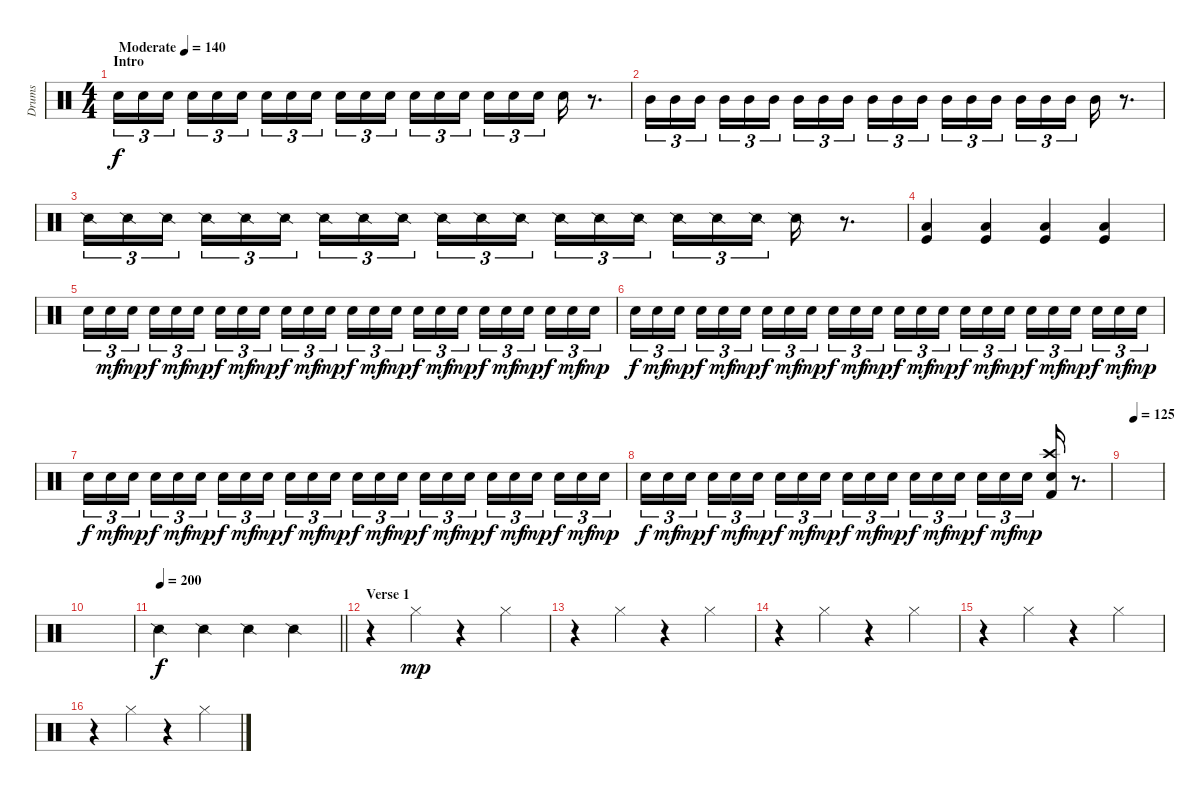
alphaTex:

\track ("Drums" "Drums") {instrument percussion}
\staff {score}
\articulation defaults
\ts (4 4)
\section ("" "Intro")
\tempo (140 "Moderate")
\clef neutral
\ks c "Snare (hit) 2".16{tu (3 2) dy f} "Snare (hit) 2".16{tu (3 2)} "Snare (hit) 2".16{tu (3 2) beam splitsecondary} "Snare (hit) 2".16{tu (3 2)} "Snare (hit) 2".16{tu (3 2)} "Snare (hit) 2".16{tu (3 2)} "Snare (hit) 2".16{tu (3 2)} "Snare (hit) 2".16{tu (3 2)} "Snare (hit) 2".16{tu (3 2) beam splitsecondary} "Snare (hit) 2".16{tu (3 2)} "Snare (hit) 2".16{tu (3 2)} "Snare (hit) 2".16{tu (3 2)} "Snare (hit) 2".16{tu (3 2)} "Snare (hit) 2".16{tu (3 2)} "Snare (hit) 2".16{tu (3 2) beam splitsecondary} "Snare (hit) 2".16{tu (3 2)} "Snare (hit) 2".16{tu (3 2)} "Snare (hit) 2".16{tu (3 2)} "Snare (hit) 2".16
r.8{d} |
"Mid Tom (hit)".16{tu (3 2)} "Mid Tom (hit)".16{tu (3 2)} "Mid Tom (hit)".16{tu (3 2) beam splitsecondary} "Mid Tom (hit)".16{tu (3 2)} "Mid Tom (hit)".16{tu (3 2)} "Mid Tom (hit)".16{tu (3 2)} "Mid Tom (hit)".16{tu (3 2)} "Mid Tom (hit)".16{tu (3 2)} "Mid Tom (hit)".16{tu (3 2) beam splitsecondary} "Mid Tom (hit)".16{tu (3 2)} "Mid Tom (hit)".16{tu (3 2)} "Mid Tom (hit)".16{tu (3 2)} "Mid Tom (hit)".16{tu (3 2)} "Mid Tom (hit)".16{tu (3 2)} "Mid Tom (hit)".16{tu (3 2) beam splitsecondary} "Mid Tom (hit)".16{tu (3 2)} "Mid Tom (hit)".16{tu (3 2)} "Mid Tom (hit)".16{tu (3 2)} "Mid Tom (hit)".16 r.8{d} |
"Snare (side stick) 2".16{tu (3 2)} "Snare (side stick) 2".16{tu (3 2)} "Snare (side stick) 2".16{tu (3 2) beam splitsecondary} "Snare (side stick) 2".16{tu (3 2)} "Snare (side stick) 2".16{tu (3 2)} "Snare (side stick) 2".16{tu (3 2)} "Snare (side stick) 2".16{tu (3 2)} "Snare (side stick) 2".16{tu (3 2)} "Snare (side stick) 2".16{tu (3 2) beam splitsecondary} "Snare (side stick) 2".16{tu (3 2)} "Snare (side stick) 2".16{tu (3 2)} "Snare (side stick) 2".16{tu (3 2)} "Snare (side stick) 2".16{tu (3 2)} "Snare (side stick) 2".16{tu (3 2)} "Snare (side stick) 2".16{tu (3 2) beam splitsecondary} "Snare (side stick) 2".16{tu (3 2)} "Snare (side stick) 2".16{tu (3 2)} "Snare (side stick) 2".16{tu (3 2)} "Snare (side stick) 2".16 r.8{d} |
("Low Tom (hit)" "Kick (hit)").4 ("Low Tom (hit)" "Kick (hit)").4 ("Low Tom (hit)" "Kick (hit)").4 ("Low Tom (hit)" "Kick (hit)").4 |
"Snare (hit) 2".16{tu (3 2)} "Snare (hit) 2".16{tu (3 2) dy mf} "Snare (hit) 2".16{tu (3 2) dy mp beam splitsecondary} "Snare (hit) 2".16{tu (3 2) dy f} "Snare (hit) 2".16{tu (3 2) dy mf} "Snare (hit) 2".16{tu (3 2) dy mp} "Snare (hit) 2".16{tu (3 2) dy f} "Snare (hit) 2".16{tu (3 2) dy mf} "Snare (hit) 2".16{tu (3 2) dy mp beam splitsecondary} "Snare (hit) 2".16{tu (3 2) dy f} "Snare (hit) 2".16{tu (3 2) dy mf} "Snare (hit) 2".16{tu (3 2) dy mp} "Snare (hit) 2".16{tu (3 2) dy f} "Snare (hit) 2".16{tu (3 2) dy mf} "Snare (hit) 2".16{tu (3 2) dy mp beam splitsecondary} "Snare (hit) 2".16{tu (3 2) dy f} "Snare (hit) 2".16{tu (3 2) dy mf} "Snare (hit) 2".16{tu (3 2) dy mp} "Snare (hit) 2".16{tu (3 2) dy f} "Snare (hit) 2".16{tu (3 2) dy mf} "Snare (hit) 2".16{tu (3 2) dy mp beam splitsecondary} "Snare (hit) 2".16{tu (3 2) dy f} "Snare (hit) 2".16{tu (3 2) dy mf} "Snare (hit) 2".16{tu (3 2) dy mp} |
"Snare (hit) 2".16{tu (3 2) dy f} "Snare (hit) 2".16{tu (3 2) dy mf} "Snare (hit) 2".16{tu (3 2) dy mp beam splitsecondary} "Snare (hit) 2".16{tu (3 2) dy f} "Snare (hit) 2".16{tu (3 2) dy mf} "Snare (hit) 2".16{tu (3 2) dy mp} "Snare (hit) 2".16{tu (3 2) dy f} "Snare (hit) 2".16{tu (3 2) dy mf} "Snare (hit) 2".16{tu (3 2) dy mp beam splitsecondary} "Snare (hit) 2".16{tu (3 2) dy f} "Snare (hit) 2".16{tu (3 2) dy mf} "Snare (hit) 2".16{tu (3 2) dy mp} "Snare (hit) 2".16{tu (3 2) dy f} "Snare (hit) 2".16{tu (3 2) dy mf} "Snare (hit) 2".16{tu (3 2) dy mp beam splitsecondary} "Snare (hit) 2".16{tu (3 2) dy f} "Snare (hit) 2".16{tu (3 2) dy mf} "Snare (hit) 2".16{tu (3 2) dy mp} "Snare (hit) 2".16{tu (3 2) dy f} "Snare (hit) 2".16{tu (3 2) dy mf} "Snare (hit) 2".16{tu (3 2) dy mp beam splitsecondary} "Snare (hit) 2".16{tu (3 2) dy f} "Snare (hit) 2".16{tu (3 2) dy mf} "Snare (hit) 2".16{tu (3 2) dy mp} |
"Snare (hit) 2".16{tu (3 2) dy f} "Snare (hit) 2".16{tu (3 2) dy mf} "Snare (hit) 2".16{tu (3 2) dy mp beam splitsecondary} "Snare (hit) 2".16{tu (3 2) dy f} "Snare (hit) 2".16{tu (3 2) dy mf} "Snare (hit) 2".16{tu (3 2) dy mp} "Snare (hit) 2".16{tu (3 2) dy f} "Snare (hit) 2".16{tu (3 2) dy mf} "Snare (hit) 2".16{tu (3 2) dy mp beam splitsecondary} "Snare (hit) 2".16{tu (3 2) dy f} "Snare (hit) 2".16{tu (3 2) dy mf} "Snare (hit) 2".16{tu (3 2) dy mp} "Snare (hit) 2".16{tu (3 2) dy f} "Snare (hit) 2".16{tu (3 2) dy mf} "Snare (hit) 2".16{tu (3 2) dy mp beam splitsecondary} "Snare (hit) 2".16{tu (3 2) dy f} "Snare (hit) 2".16{tu (3 2) dy mf} "Snare (hit) 2".16{tu (3 2) dy mp} "Snare (hit) 2".16{tu (3 2) dy f} "Snare (hit) 2".16{tu (3 2) dy mf} "Snare (hit) 2".16{tu (3 2) dy mp beam splitsecondary} "Snare (hit) 2".16{tu (3 2) dy f} "Snare (hit) 2".16{tu (3 2) dy mf} "Snare (hit) 2".16{tu (3 2) dy mp} |
"Snare (hit) 2".16{tu (3 2) dy f} "Snare (hit) 2".16{tu (3 2) dy mf} "Snare (hit) 2".16{tu (3 2) dy mp beam splitsecondary} "Snare (hit) 2".16{tu (3 2) dy f} "Snare (hit) 2".16{tu (3 2) dy mf} "Snare (hit) 2".16{tu (3 2) dy mp} "Snare (hit) 2".16{tu (3 2) dy f} "Snare (hit) 2".16{tu (3 2) dy mf} "Snare (hit) 2".16{tu (3 2) dy mp beam splitsecondary} "Snare (hit) 2".16{tu (3 2) dy f} "Snare (hit) 2".16{tu (3 2) dy mf} "Snare (hit) 2".16{tu (3 2) dy mp} "Snare (hit) 2".16{tu (3 2) dy f} "Snare (hit) 2".16{tu (3 2) dy mf} "Snare (hit) 2".16{tu (3 2) dy mp beam splitsecondary} "Snare (hit) 2".16{tu (3 2) dy f} "Snare (hit) 2".16{tu (3 2) dy mf} "Snare (hit) 2".16{tu (3 2) dy mp} ("Crash high (hit)" "Snare (hit) 2" "Kick (hit) 2").16 r.8{d} |
\tempo (125 0.25)
|
|
\tempo 200
\barLineRight lightlight "Snare (side stick) 2".4{dy f} "Snare (side stick) 2".4 "Snare (side stick) 2".4 "Snare (side stick) 2".4
|
\section ("" "Verse 1")
r.4 "Hi-Hat (closed)".4{dy mp} r.4 "Hi-Hat (closed)".4 |
r.4 "Hi-Hat (closed)".4 r.4 "Hi-Hat (closed)".4 |
r.4 "Hi-Hat (closed)".4 r.4 "Hi-Hat (closed)".4 |
r.4 "Hi-Hat (closed)".4 r.4 "Hi-Hat (closed)".4 |
r.4 "Hi-Hat (closed)".4 r.4 "Hi-Hat (closed)".4
